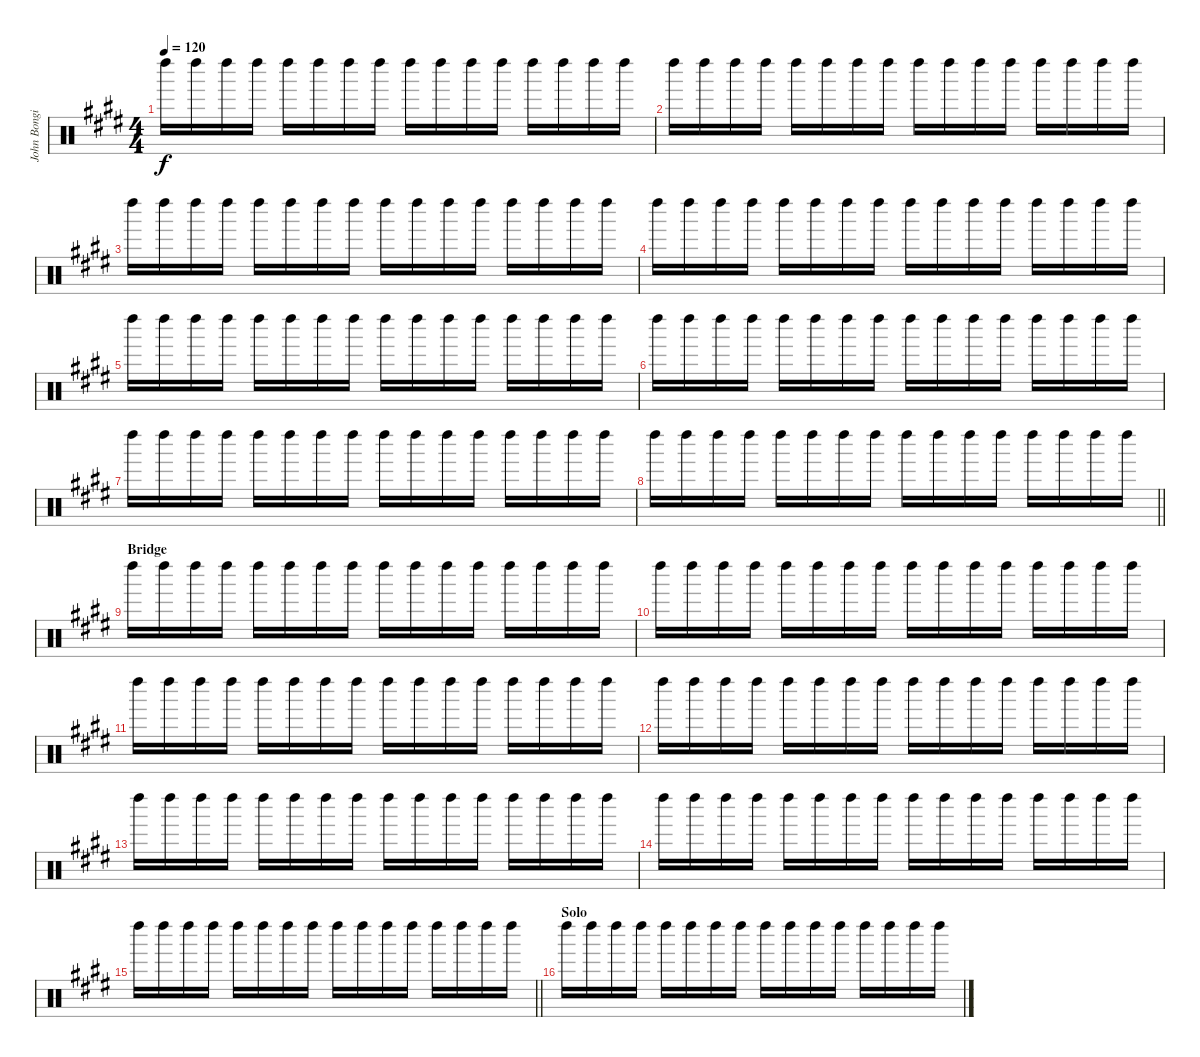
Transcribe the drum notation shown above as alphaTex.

\track ("John Bongiovi (Maracas)" "John Bongi") {instrument percussion}
\staff {score}
\articulation defaults
\ts (4 4)
\tempo 120
\clef neutral
\ks c#minor "Left Maraca (hit)".16{dy f} "Left Maraca (hit)".16 "Left Maraca (hit)".16 "Left Maraca (hit)".16 "Left Maraca (hit)".16 "Left Maraca (hit)".16 "Left Maraca (hit)".16 "Left Maraca (hit)".16 "Left Maraca (hit)".16 "Left Maraca (hit)".16 "Left Maraca (hit)".16 "Left Maraca (hit)".16 "Left Maraca (hit)".16 "Left Maraca (hit)".16 "Left Maraca (hit)".16 "Left Maraca (hit)".16
|
"Left Maraca (hit)".16 "Left Maraca (hit)".16 "Left Maraca (hit)".16 "Left Maraca (hit)".16 "Left Maraca (hit)".16 "Left Maraca (hit)".16 "Left Maraca (hit)".16 "Left Maraca (hit)".16 "Left Maraca (hit)".16 "Left Maraca (hit)".16 "Left Maraca (hit)".16 "Left Maraca (hit)".16 "Left Maraca (hit)".16 "Left Maraca (hit)".16 "Left Maraca (hit)".16 "Left Maraca (hit)".16 |
"Left Maraca (hit)".16 "Left Maraca (hit)".16 "Left Maraca (hit)".16 "Left Maraca (hit)".16 "Left Maraca (hit)".16 "Left Maraca (hit)".16 "Left Maraca (hit)".16 "Left Maraca (hit)".16 "Left Maraca (hit)".16 "Left Maraca (hit)".16 "Left Maraca (hit)".16 "Left Maraca (hit)".16 "Left Maraca (hit)".16 "Left Maraca (hit)".16 "Left Maraca (hit)".16 "Left Maraca (hit)".16 |
"Left Maraca (hit)".16 "Left Maraca (hit)".16 "Left Maraca (hit)".16 "Left Maraca (hit)".16 "Left Maraca (hit)".16 "Left Maraca (hit)".16 "Left Maraca (hit)".16 "Left Maraca (hit)".16 "Left Maraca (hit)".16 "Left Maraca (hit)".16 "Left Maraca (hit)".16 "Left Maraca (hit)".16 "Left Maraca (hit)".16 "Left Maraca (hit)".16 "Left Maraca (hit)".16 "Left Maraca (hit)".16 |
"Left Maraca (hit)".16 "Left Maraca (hit)".16 "Left Maraca (hit)".16 "Left Maraca (hit)".16 "Left Maraca (hit)".16 "Left Maraca (hit)".16 "Left Maraca (hit)".16 "Left Maraca (hit)".16 "Left Maraca (hit)".16 "Left Maraca (hit)".16 "Left Maraca (hit)".16 "Left Maraca (hit)".16 "Left Maraca (hit)".16 "Left Maraca (hit)".16 "Left Maraca (hit)".16 "Left Maraca (hit)".16 |
"Left Maraca (hit)".16 "Left Maraca (hit)".16 "Left Maraca (hit)".16 "Left Maraca (hit)".16 "Left Maraca (hit)".16 "Left Maraca (hit)".16 "Left Maraca (hit)".16 "Left Maraca (hit)".16 "Left Maraca (hit)".16 "Left Maraca (hit)".16 "Left Maraca (hit)".16 "Left Maraca (hit)".16 "Left Maraca (hit)".16 "Left Maraca (hit)".16 "Left Maraca (hit)".16 "Left Maraca (hit)".16 |
"Left Maraca (hit)".16 "Left Maraca (hit)".16 "Left Maraca (hit)".16 "Left Maraca (hit)".16 "Left Maraca (hit)".16 "Left Maraca (hit)".16 "Left Maraca (hit)".16 "Left Maraca (hit)".16 "Left Maraca (hit)".16 "Left Maraca (hit)".16 "Left Maraca (hit)".16 "Left Maraca (hit)".16 "Left Maraca (hit)".16 "Left Maraca (hit)".16 "Left Maraca (hit)".16 "Left Maraca (hit)".16 |
\barLineRight lightlight "Left Maraca (hit)".16 "Left Maraca (hit)".16 "Left Maraca (hit)".16 "Left Maraca (hit)".16 "Left Maraca (hit)".16 "Left Maraca (hit)".16 "Left Maraca (hit)".16 "Left Maraca (hit)".16 "Left Maraca (hit)".16 "Left Maraca (hit)".16 "Left Maraca (hit)".16 "Left Maraca (hit)".16 "Left Maraca (hit)".16 "Left Maraca (hit)".16 "Left Maraca (hit)".16 "Left Maraca (hit)".16
|
\section ("" "Bridge")
"Left Maraca (hit)".16 "Left Maraca (hit)".16 "Left Maraca (hit)".16 "Left Maraca (hit)".16 "Left Maraca (hit)".16 "Left Maraca (hit)".16 "Left Maraca (hit)".16 "Left Maraca (hit)".16 "Left Maraca (hit)".16 "Left Maraca (hit)".16 "Left Maraca (hit)".16 "Left Maraca (hit)".16 "Left Maraca (hit)".16 "Left Maraca (hit)".16 "Left Maraca (hit)".16 "Left Maraca (hit)".16 |
"Left Maraca (hit)".16 "Left Maraca (hit)".16 "Left Maraca (hit)".16 "Left Maraca (hit)".16 "Left Maraca (hit)".16 "Left Maraca (hit)".16 "Left Maraca (hit)".16 "Left Maraca (hit)".16 "Left Maraca (hit)".16 "Left Maraca (hit)".16 "Left Maraca (hit)".16 "Left Maraca (hit)".16 "Left Maraca (hit)".16 "Left Maraca (hit)".16 "Left Maraca (hit)".16 "Left Maraca (hit)".16 |
"Left Maraca (hit)".16 "Left Maraca (hit)".16 "Left Maraca (hit)".16 "Left Maraca (hit)".16 "Left Maraca (hit)".16 "Left Maraca (hit)".16 "Left Maraca (hit)".16 "Left Maraca (hit)".16 "Left Maraca (hit)".16 "Left Maraca (hit)".16 "Left Maraca (hit)".16 "Left Maraca (hit)".16 "Left Maraca (hit)".16 "Left Maraca (hit)".16 "Left Maraca (hit)".16 "Left Maraca (hit)".16 |
"Left Maraca (hit)".16 "Left Maraca (hit)".16 "Left Maraca (hit)".16 "Left Maraca (hit)".16 "Left Maraca (hit)".16 "Left Maraca (hit)".16 "Left Maraca (hit)".16 "Left Maraca (hit)".16 "Left Maraca (hit)".16 "Left Maraca (hit)".16 "Left Maraca (hit)".16 "Left Maraca (hit)".16 "Left Maraca (hit)".16 "Left Maraca (hit)".16 "Left Maraca (hit)".16 "Left Maraca (hit)".16 |
"Left Maraca (hit)".16 "Left Maraca (hit)".16 "Left Maraca (hit)".16 "Left Maraca (hit)".16 "Left Maraca (hit)".16 "Left Maraca (hit)".16 "Left Maraca (hit)".16 "Left Maraca (hit)".16 "Left Maraca (hit)".16 "Left Maraca (hit)".16 "Left Maraca (hit)".16 "Left Maraca (hit)".16 "Left Maraca (hit)".16 "Left Maraca (hit)".16 "Left Maraca (hit)".16 "Left Maraca (hit)".16 |
"Left Maraca (hit)".16 "Left Maraca (hit)".16 "Left Maraca (hit)".16 "Left Maraca (hit)".16 "Left Maraca (hit)".16 "Left Maraca (hit)".16 "Left Maraca (hit)".16 "Left Maraca (hit)".16 "Left Maraca (hit)".16 "Left Maraca (hit)".16 "Left Maraca (hit)".16 "Left Maraca (hit)".16 "Left Maraca (hit)".16 "Left Maraca (hit)".16 "Left Maraca (hit)".16 "Left Maraca (hit)".16 |
\barLineRight lightlight "Left Maraca (hit)".16 "Left Maraca (hit)".16 "Left Maraca (hit)".16 "Left Maraca (hit)".16 "Left Maraca (hit)".16 "Left Maraca (hit)".16 "Left Maraca (hit)".16 "Left Maraca (hit)".16 "Left Maraca (hit)".16 "Left Maraca (hit)".16 "Left Maraca (hit)".16 "Left Maraca (hit)".16 "Left Maraca (hit)".16 "Left Maraca (hit)".16 "Left Maraca (hit)".16 "Left Maraca (hit)".16
|
\section ("" "Solo")
"Left Maraca (hit)".16 "Left Maraca (hit)".16 "Left Maraca (hit)".16 "Left Maraca (hit)".16 "Left Maraca (hit)".16 "Left Maraca (hit)".16 "Left Maraca (hit)".16 "Left Maraca (hit)".16 "Left Maraca (hit)".16 "Left Maraca (hit)".16 "Left Maraca (hit)".16 "Left Maraca (hit)".16 "Left Maraca (hit)".16 "Left Maraca (hit)".16 "Left Maraca (hit)".16 "Left Maraca (hit)".16
